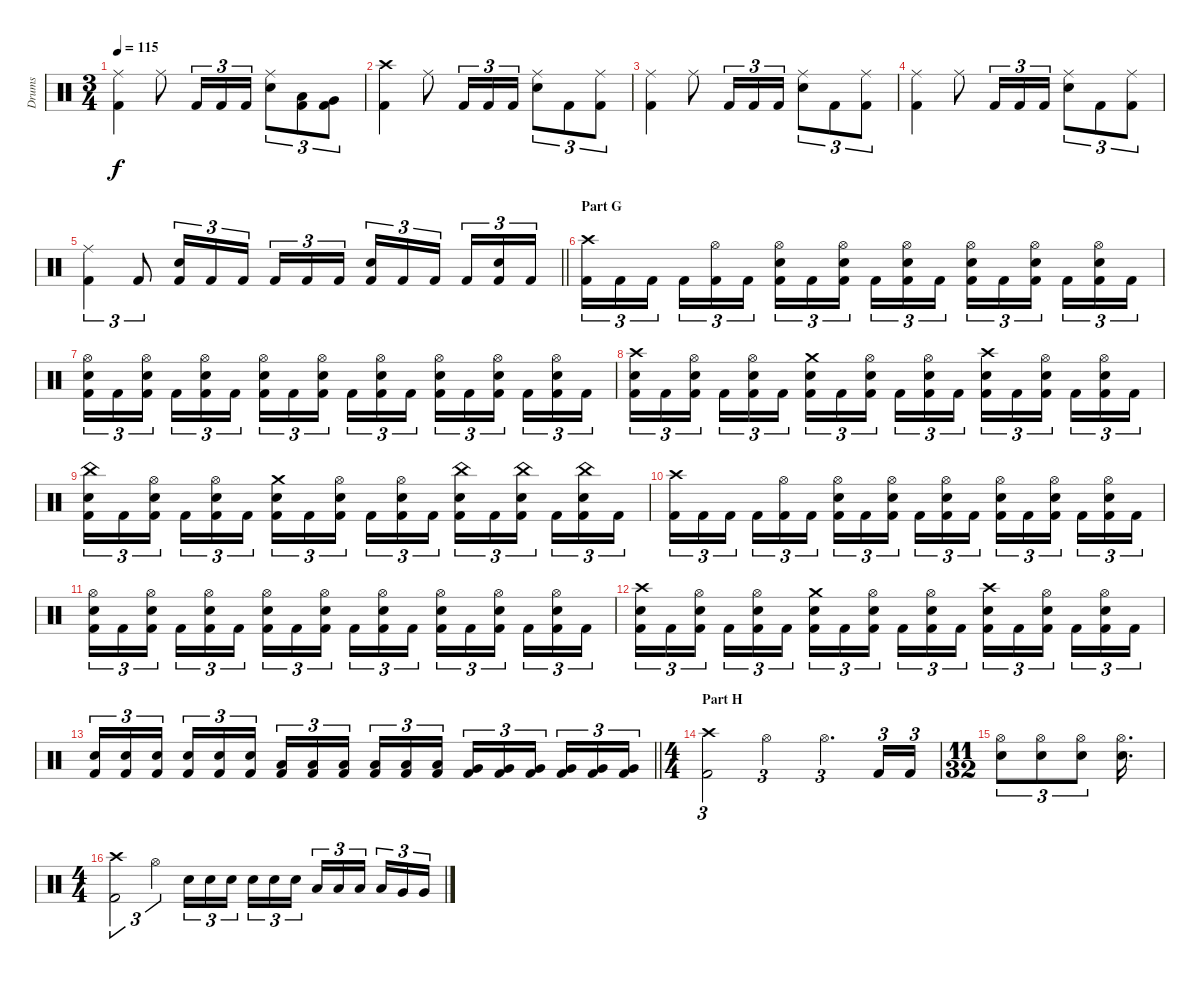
\track ("Drums" "Drums") {instrument percussion}
\staff {score}
\articulation defaults
\ts (3 4)
\tempo 115
\clef neutral
\ks c
("Ride (middle)" "Kick (hit) 2").4{dy f} "Ride (middle)".8 "Kick (hit) 2".16{tu (3 2)} "Kick (hit) 2".16{tu (3 2)} "Kick (hit) 2".16{tu (3 2)} ("Snare (hit) 2" "Ride (middle)").8{tu (3 2)} ("Kick (hit) 2" "Low Tom (hit)").8{tu (3 2)} ("Kick (hit) 2" "Very Low Tom (hit)").8{tu (3 2)} |
("Crash high (hit)" "Kick (hit) 2").4 "Ride (middle)".8 "Kick (hit) 2".16{tu (3 2)} "Kick (hit) 2".16{tu (3 2)} "Kick (hit) 2".16{tu (3 2)} ("Snare (hit) 2" "Ride (middle)").8{tu (3 2)} "Kick (hit) 2".8{tu (3 2)} ("Kick (hit) 2" "Ride (middle)").8{tu (3 2)} |
("Ride (middle)" "Kick (hit) 2").4 "Ride (middle)".8 "Kick (hit) 2".16{tu (3 2)} "Kick (hit) 2".16{tu (3 2)} "Kick (hit) 2".16{tu (3 2)} ("Snare (hit) 2" "Ride (middle)").8{tu (3 2)} "Kick (hit) 2".8{tu (3 2)} ("Kick (hit) 2" "Ride (middle)").8{tu (3 2)} |
("Ride (middle)" "Kick (hit) 2").4 "Ride (middle)".8 "Kick (hit) 2".16{tu (3 2)} "Kick (hit) 2".16{tu (3 2)} "Kick (hit) 2".16{tu (3 2)} ("Snare (hit) 2" "Ride (middle)").8{tu (3 2)} "Kick (hit) 2".8{tu (3 2)} ("Kick (hit) 2" "Ride (middle)").8{tu (3 2)} |
\barLineRight lightlight
("Ride (middle)" "Kick (hit) 2").4{tu (3 2)} "Kick (hit) 2".8{tu (3 2)} ("Kick (hit) 2" "Snare (hit) 2").16{tu (3 2)} "Kick (hit) 2".16{tu (3 2)} "Kick (hit) 2".16{tu (3 2) beam splitsecondary} "Kick (hit) 2".16{tu (3 2)} "Kick (hit) 2".16{tu (3 2)} "Kick (hit) 2".16{tu (3 2)} ("Snare (hit) 2" "Kick (hit) 2").16{tu (3 2)} "Kick (hit) 2".16{tu (3 2)} "Kick (hit) 2".16{tu (3 2) beam splitsecondary} "Kick (hit) 2".16{tu (3 2)} ("Kick (hit) 2" "Snare (hit) 2").16{tu (3 2)} "Kick (hit) 2".16{tu (3 2)} |
\section ("" "Part G")
("Kick (hit) 2" "Crash high (hit)").16{tu (3 2)} "Kick (hit) 2".16{tu (3 2)} "Kick (hit) 2".16{tu (3 2) beam splitsecondary} "Kick (hit) 2".16{tu (3 2)} ("Kick (hit) 2" "Hi-Hat (open)").16{tu (3 2)} "Kick (hit) 2".16{tu (3 2)} ("Kick (hit) 2" "Snare (hit) 2" "Hi-Hat (open)").16{tu (3 2)} "Kick (hit) 2".16{tu (3 2)} ("Kick (hit) 2" "Snare (hit) 2" "Hi-Hat (open)").16{tu (3 2) beam splitsecondary} "Kick (hit) 2".16{tu (3 2)} ("Kick (hit) 2" "Snare (hit) 2" "Hi-Hat (open)").16{tu (3 2)} "Kick (hit) 2".16{tu (3 2)} ("Kick (hit) 2" "Snare (hit) 2" "Hi-Hat (open)").16{tu (3 2)} "Kick (hit) 2".16{tu (3 2)} ("Kick (hit) 2" "Snare (hit) 2" "Hi-Hat (open)").16{tu (3 2) beam splitsecondary} "Kick (hit) 2".16{tu (3 2)} ("Kick (hit) 2" "Snare (hit) 2" "Hi-Hat (open)").16{tu (3 2)} "Kick (hit) 2".16{tu (3 2)} |
("Kick (hit) 2" "Snare (hit) 2" "Hi-Hat (open)").16{tu (3 2)} "Kick (hit) 2".16{tu (3 2)} ("Kick (hit) 2" "Snare (hit) 2" "Hi-Hat (open)").16{tu (3 2) beam splitsecondary} "Kick (hit) 2".16{tu (3 2)} ("Kick (hit) 2" "Snare (hit) 2" "Hi-Hat (open)").16{tu (3 2)} "Kick (hit) 2".16{tu (3 2)} ("Kick (hit) 2" "Snare (hit) 2" "Hi-Hat (open)").16{tu (3 2)} "Kick (hit) 2".16{tu (3 2)} ("Kick (hit) 2" "Snare (hit) 2" "Hi-Hat (open)").16{tu (3 2) beam splitsecondary} "Kick (hit) 2".16{tu (3 2)} ("Kick (hit) 2" "Snare (hit) 2" "Hi-Hat (open)").16{tu (3 2)} "Kick (hit) 2".16{tu (3 2)} ("Kick (hit) 2" "Snare (hit) 2" "Hi-Hat (open)").16{tu (3 2)} "Kick (hit) 2".16{tu (3 2)} ("Kick (hit) 2" "Snare (hit) 2" "Hi-Hat (open)").16{tu (3 2) beam splitsecondary} "Kick (hit) 2".16{tu (3 2)} ("Kick (hit) 2" "Snare (hit) 2" "Hi-Hat (open)").16{tu (3 2)} "Kick (hit) 2".16{tu (3 2)} |
("Kick (hit) 2" "Snare (hit) 2" "Crash high (hit)").16{tu (3 2)} "Kick (hit) 2".16{tu (3 2)} ("Kick (hit) 2" "Snare (hit) 2" "Hi-Hat (open)").16{tu (3 2) beam splitsecondary} "Kick (hit) 2".16{tu (3 2)} ("Kick (hit) 2" "Snare (hit) 2" "Hi-Hat (open)").16{tu (3 2)} "Kick (hit) 2".16{tu (3 2)} ("Kick (hit) 2" "Snare (hit) 2" "Crash medium (hit)").16{tu (3 2)} "Kick (hit) 2".16{tu (3 2)} ("Kick (hit) 2" "Snare (hit) 2" "Hi-Hat (open)").16{tu (3 2) beam splitsecondary} "Kick (hit) 2".16{tu (3 2)} ("Kick (hit) 2" "Snare (hit) 2" "Hi-Hat (open)").16{tu (3 2)} "Kick (hit) 2".16{tu (3 2)} ("Kick (hit) 2" "Snare (hit) 2" "Crash high (hit)").16{tu (3 2)} "Kick (hit) 2".16{tu (3 2)} ("Kick (hit) 2" "Snare (hit) 2" "Hi-Hat (open)").16{tu (3 2) beam splitsecondary} "Kick (hit) 2".16{tu (3 2)} ("Kick (hit) 2" "Snare (hit) 2" "Hi-Hat (open)").16{tu (3 2)} "Kick (hit) 2".16{tu (3 2)} |
("Kick (hit) 2" "Snare (hit) 2" "China (hit)").16{tu (3 2)} "Kick (hit) 2".16{tu (3 2)} ("Kick (hit) 2" "Snare (hit) 2" "Hi-Hat (open)").16{tu (3 2) beam splitsecondary} "Kick (hit) 2".16{tu (3 2)} ("Kick (hit) 2" "Snare (hit) 2" "Hi-Hat (open)").16{tu (3 2)} "Kick (hit) 2".16{tu (3 2)} ("Kick (hit) 2" "Snare (hit) 2" "Crash medium (hit)").16{tu (3 2)} "Kick (hit) 2".16{tu (3 2)} ("Kick (hit) 2" "Snare (hit) 2" "Hi-Hat (open)").16{tu (3 2) beam splitsecondary} "Kick (hit) 2".16{tu (3 2)} ("Kick (hit) 2" "Snare (hit) 2" "Hi-Hat (open)").16{tu (3 2)} "Kick (hit) 2".16{tu (3 2)} ("Kick (hit) 2" "Snare (hit) 2" "China (hit)").16{tu (3 2)} "Kick (hit) 2".16{tu (3 2)} ("Kick (hit) 2" "Snare (hit) 2" "China (hit)").16{tu (3 2) beam splitsecondary} "Kick (hit) 2".16{tu (3 2)} ("Kick (hit) 2" "Snare (hit) 2" "China (hit)").16{tu (3 2)} "Kick (hit) 2".16{tu (3 2)} |
("Kick (hit) 2" "Crash high (hit)").16{tu (3 2)} "Kick (hit) 2".16{tu (3 2)} "Kick (hit) 2".16{tu (3 2) beam splitsecondary} "Kick (hit) 2".16{tu (3 2)} ("Kick (hit) 2" "Hi-Hat (open)").16{tu (3 2)} "Kick (hit) 2".16{tu (3 2)} ("Kick (hit) 2" "Snare (hit) 2" "Hi-Hat (open)").16{tu (3 2)} "Kick (hit) 2".16{tu (3 2)} ("Kick (hit) 2" "Snare (hit) 2" "Hi-Hat (open)").16{tu (3 2) beam splitsecondary} "Kick (hit) 2".16{tu (3 2)} ("Kick (hit) 2" "Snare (hit) 2" "Hi-Hat (open)").16{tu (3 2)} "Kick (hit) 2".16{tu (3 2)} ("Kick (hit) 2" "Snare (hit) 2" "Hi-Hat (open)").16{tu (3 2)} "Kick (hit) 2".16{tu (3 2)} ("Kick (hit) 2" "Snare (hit) 2" "Hi-Hat (open)").16{tu (3 2) beam splitsecondary} "Kick (hit) 2".16{tu (3 2)} ("Kick (hit) 2" "Snare (hit) 2" "Hi-Hat (open)").16{tu (3 2)} "Kick (hit) 2".16{tu (3 2)} |
("Kick (hit) 2" "Snare (hit) 2" "Hi-Hat (open)").16{tu (3 2)} "Kick (hit) 2".16{tu (3 2)} ("Kick (hit) 2" "Snare (hit) 2" "Hi-Hat (open)").16{tu (3 2) beam splitsecondary} "Kick (hit) 2".16{tu (3 2)} ("Kick (hit) 2" "Snare (hit) 2" "Hi-Hat (open)").16{tu (3 2)} "Kick (hit) 2".16{tu (3 2)} ("Kick (hit) 2" "Snare (hit) 2" "Hi-Hat (open)").16{tu (3 2)} "Kick (hit) 2".16{tu (3 2)} ("Kick (hit) 2" "Snare (hit) 2" "Hi-Hat (open)").16{tu (3 2) beam splitsecondary} "Kick (hit) 2".16{tu (3 2)} ("Kick (hit) 2" "Snare (hit) 2" "Hi-Hat (open)").16{tu (3 2)} "Kick (hit) 2".16{tu (3 2)} ("Kick (hit) 2" "Snare (hit) 2" "Hi-Hat (open)").16{tu (3 2)} "Kick (hit) 2".16{tu (3 2)} ("Kick (hit) 2" "Snare (hit) 2" "Hi-Hat (open)").16{tu (3 2) beam splitsecondary} "Kick (hit) 2".16{tu (3 2)} ("Kick (hit) 2" "Snare (hit) 2" "Hi-Hat (open)").16{tu (3 2)} "Kick (hit) 2".16{tu (3 2)} |
("Kick (hit) 2" "Snare (hit) 2" "Crash high (hit)").16{tu (3 2)} "Kick (hit) 2".16{tu (3 2)} ("Kick (hit) 2" "Snare (hit) 2" "Hi-Hat (open)").16{tu (3 2) beam splitsecondary} "Kick (hit) 2".16{tu (3 2)} ("Kick (hit) 2" "Snare (hit) 2" "Hi-Hat (open)").16{tu (3 2)} "Kick (hit) 2".16{tu (3 2)} ("Kick (hit) 2" "Snare (hit) 2" "Crash medium (hit)").16{tu (3 2)} "Kick (hit) 2".16{tu (3 2)} ("Kick (hit) 2" "Snare (hit) 2" "Hi-Hat (open)").16{tu (3 2) beam splitsecondary} "Kick (hit) 2".16{tu (3 2)} ("Kick (hit) 2" "Snare (hit) 2" "Hi-Hat (open)").16{tu (3 2)} "Kick (hit) 2".16{tu (3 2)} ("Kick (hit) 2" "Snare (hit) 2" "Crash high (hit)").16{tu (3 2)} "Kick (hit) 2".16{tu (3 2)} ("Kick (hit) 2" "Snare (hit) 2" "Hi-Hat (open)").16{tu (3 2) beam splitsecondary} "Kick (hit) 2".16{tu (3 2)} ("Kick (hit) 2" "Snare (hit) 2" "Hi-Hat (open)").16{tu (3 2)} "Kick (hit) 2".16{tu (3 2)} |
\barLineRight lightlight
("Kick (hit) 2" "Snare (hit) 2").16{tu (3 2)} ("Kick (hit) 2" "Snare (hit) 2").16{tu (3 2)} ("Kick (hit) 2" "Snare (hit) 2").16{tu (3 2) beam splitsecondary} ("Kick (hit) 2" "Snare (hit) 2").16{tu (3 2)} ("Kick (hit) 2" "Snare (hit) 2").16{tu (3 2)} ("Kick (hit) 2" "Snare (hit) 2").16{tu (3 2)} ("Kick (hit) 2" "Low Tom (hit)").16{tu (3 2)} ("Kick (hit) 2" "Low Tom (hit)").16{tu (3 2)} ("Kick (hit) 2" "Low Tom (hit)").16{tu (3 2) beam splitsecondary} ("Kick (hit) 2" "Low Tom (hit)").16{tu (3 2)} ("Kick (hit) 2" "Low Tom (hit)").16{tu (3 2)} ("Kick (hit) 2" "Low Tom (hit)").16{tu (3 2)} ("Kick (hit) 2" "Very Low Tom (hit)").16{tu (3 2)} ("Kick (hit) 2" "Very Low Tom (hit)").16{tu (3 2)} ("Kick (hit) 2" "Very Low Tom (hit)").16{tu (3 2) beam splitsecondary} ("Kick (hit) 2" "Very Low Tom (hit)").16{tu (3 2)} ("Kick (hit) 2" "Very Low Tom (hit)").16{tu (3 2)} ("Kick (hit) 2" "Very Low Tom (hit)").16{tu (3 2)} |
\ts (4 4)
\section ("" "Part H")
("Crash high (hit)" "Kick (hit) 2").2{tu (3 2)} "Hi-Hat (open)".2{tu (3 2)} "Hi-Hat (open)".4{d tu (3 2)} "Kick (hit) 2".16{tu (3 2)} "Kick (hit) 2".16{tu (3 2)} |
\ts (11 32)
("Snare (hit) 2" "Hi-Hat (open)").8{tu (3 2)} ("Snare (hit) 2" "Hi-Hat (open)").8{tu (3 2)} ("Snare (hit) 2" "Hi-Hat (open)").8{tu (3 2)} ("Snare (hit) 2" "Hi-Hat (open)").16{d} |
\ts (4 4)
("Crash high (hit)" "Kick (hit) 2").2{tu (3 2)} "Hi-Hat (open)".4{tu (3 2)} "Snare (hit) 2".16{tu (3 2)} "Snare (hit) 2".16{tu (3 2)} "Snare (hit) 2".16{tu (3 2) beam splitsecondary} "Snare (hit) 2".16{tu (3 2)} "Snare (hit) 2".16{tu (3 2)} "Snare (hit) 2".16{tu (3 2)} "Low Tom (hit)".16{tu (3 2)} "Low Tom (hit)".16{tu (3 2)} "Low Tom (hit)".16{tu (3 2) beam splitsecondary} "Low Tom (hit)".16{tu (3 2)} "Very Low Tom (hit)".16{tu (3 2)} "Very Low Tom (hit)".16{tu (3 2)}
